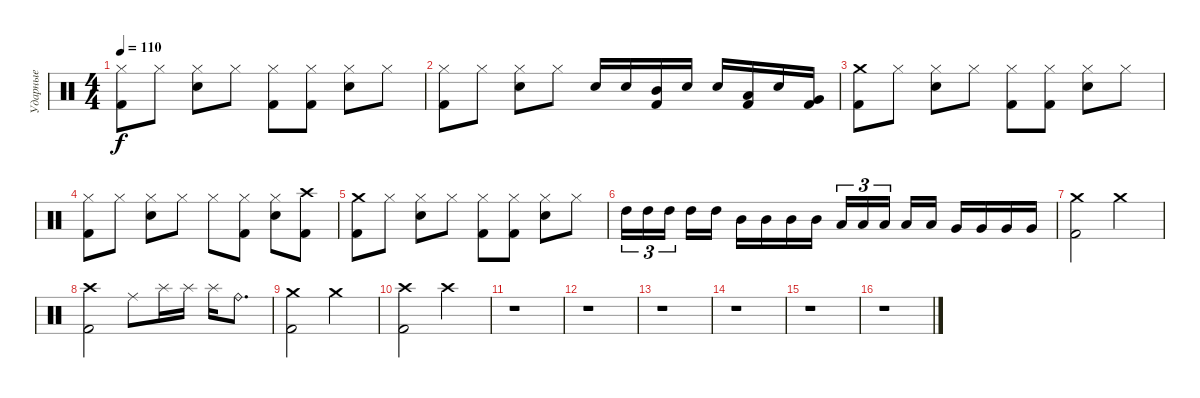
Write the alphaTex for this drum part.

\track ("Ударные" "Ударные") {instrument percussion}
\staff {score}
\articulation defaults
\ts (4 4)
\tempo 110
\clef neutral
\ks c
("Hi-Hat (closed)" "Kick (hit) 2").8{dy f} "Hi-Hat (closed)".8 ("Hi-Hat (closed)" "Electric Snare (hit)").8 "Hi-Hat (closed)".8 ("Hi-Hat (closed)" "Kick (hit) 2").8 ("Hi-Hat (closed)" "Kick (hit) 2").8 ("Hi-Hat (closed)" "Electric Snare (hit)").8 "Hi-Hat (closed)".8 |
("Hi-Hat (closed)" "Kick (hit) 2").8 "Hi-Hat (closed)".8 ("Hi-Hat (closed)" "Electric Snare (hit)").8 "Hi-Hat (closed)".8 "Electric Snare (hit)".16 "Electric Snare (hit)".16 ("Mid Tom (hit)" "Kick (hit) 2").16 "Electric Snare (hit)".16 "Electric Snare (hit)".16 ("Low Tom (hit)" "Kick (hit) 2").16 "Electric Snare (hit)".16 ("Very Low Tom (hit)" "Kick (hit) 2").16 |
("Crash medium (hit)" "Kick (hit) 2").8 "Hi-Hat (closed)".8 ("Hi-Hat (closed)" "Electric Snare (hit)").8 "Hi-Hat (closed)".8 ("Hi-Hat (closed)" "Kick (hit) 2").8 ("Hi-Hat (closed)" "Kick (hit) 2").8 ("Hi-Hat (closed)" "Electric Snare (hit)").8 "Hi-Hat (closed)".8 |
("Hi-Hat (closed)" "Kick (hit) 2").8 "Hi-Hat (closed)".8 ("Hi-Hat (closed)" "Electric Snare (hit)").8 "Hi-Hat (closed)".8 "Hi-Hat (closed)".8 ("Hi-Hat (closed)" "Kick (hit) 2").8 ("Hi-Hat (closed)" "Electric Snare (hit)").8 ("Crash high (hit)" "Kick (hit) 2").8 |
("Crash medium (hit)" "Kick (hit) 2").8 "Hi-Hat (closed)".8 ("Hi-Hat (closed)" "Electric Snare (hit)").8 "Hi-Hat (closed)".8 ("Hi-Hat (closed)" "Kick (hit) 2").8 ("Hi-Hat (closed)" "Kick (hit) 2").8 ("Hi-Hat (closed)" "Electric Snare (hit)").8 "Hi-Hat (closed)".8 |
"High Tom (hit)".16{tu (3 2)} "High Tom (hit)".16{tu (3 2)} "High Tom (hit)".16{tu (3 2) beam splitsecondary} "High Tom (hit)".16 "High Tom (hit)".16 "Mid Tom (hit)".16 "Mid Tom (hit)".16 "Mid Tom (hit)".16 "Mid Tom (hit)".16 "Low Tom (hit)".16{tu (3 2)} "Low Tom (hit)".16{tu (3 2)} "Low Tom (hit)".16{tu (3 2) beam splitsecondary} "Low Tom (hit)".16 "Low Tom (hit)".16 "Very Low Tom (hit)".16 "Very Low Tom (hit)".16 "Very Low Tom (hit)".16 "Very Low Tom (hit)".16 |
("Crash medium (hit)" "Kick (hit) 2").2 "Crash medium (hit)".2 |
("Crash high (hit)" "Kick (hit) 2").2 "Ride (middle)".8 "Splash (hit)".16 "Splash (hit)".16 "Splash (hit)".16 "Ride (bell)".8{d} |
("Crash medium (hit)" "Kick (hit) 2").2 "Crash medium (hit)".2 |
("Crash high (hit)" "Kick (hit) 2").2 "Crash high (hit)".2 |
r.1 |
r.1 |
r.1 |
r.1 |
r.1 |
r.1
